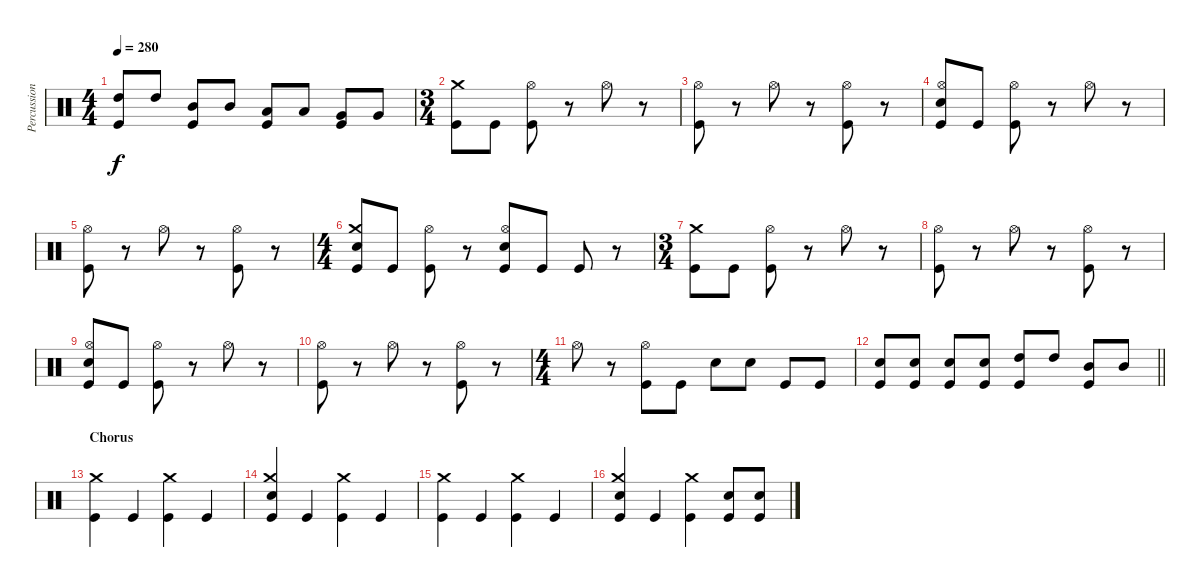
\track ("Percussion" "Percussion") {instrument percussion}
\staff {score}
\articulation defaults
\ts (4 4)
\tempo 280
\clef neutral
\ks c
("High Tom (hit)" "Kick (hit)").8{dy f} "High Tom (hit)".8 ("Mid Tom (hit)" "Kick (hit)").8 "Mid Tom (hit)".8 ("Low Tom (hit)" "Kick (hit)").8 "Low Tom (hit)".8 ("Very Low Tom (hit)" "Kick (hit)").8 "Very Low Tom (hit)".8 |
\ts (3 4)
("Crash medium (hit)" "Kick (hit)").8 "Kick (hit)".8 ("Hi-Hat (open)" "Kick (hit)").8 r.8 "Hi-Hat (open)".8 r.8 |
("Hi-Hat (open)" "Kick (hit)").8 r.8 "Hi-Hat (open)".8 r.8 ("Hi-Hat (open)" "Kick (hit)").8 r.8 |
("Hi-Hat (open)" "Electric Snare (hit)" "Kick (hit)").8 "Kick (hit)".8 ("Hi-Hat (open)" "Kick (hit)").8 r.8 "Hi-Hat (open)".8 r.8 |
("Hi-Hat (open)" "Kick (hit)").8 r.8 "Hi-Hat (open)".8 r.8 ("Hi-Hat (open)" "Kick (hit)").8 r.8 |
\ts (4 4)
("Crash medium (hit)" "Electric Snare (hit)" "Kick (hit)").8 "Kick (hit)".8 ("Hi-Hat (open)" "Kick (hit)").8 r.8 ("Hi-Hat (open)" "Electric Snare (hit)" "Kick (hit)").8 "Kick (hit)".8 "Kick (hit)".8 r.8 |
\ts (3 4)
("Crash medium (hit)" "Kick (hit)").8 "Kick (hit)".8 ("Hi-Hat (open)" "Kick (hit)").8 r.8 "Hi-Hat (open)".8 r.8 |
("Hi-Hat (open)" "Kick (hit)").8 r.8 "Hi-Hat (open)".8 r.8 ("Hi-Hat (open)" "Kick (hit)").8 r.8 |
("Hi-Hat (open)" "Electric Snare (hit)" "Kick (hit)").8 "Kick (hit)".8 ("Hi-Hat (open)" "Kick (hit)").8 r.8 "Hi-Hat (open)".8 r.8 |
("Hi-Hat (open)" "Kick (hit)").8 r.8 "Hi-Hat (open)".8 r.8 ("Hi-Hat (open)" "Kick (hit)").8 r.8 |
\ts (4 4)
"Hi-Hat (open)".8 r.8 ("Hi-Hat (open)" "Kick (hit)").8 "Kick (hit)".8 "Electric Snare (hit)".8 "Electric Snare (hit)".8 "Kick (hit)".8 "Kick (hit)".8 |
\barLineRight lightlight
("Electric Snare (hit)" "Kick (hit)").8 ("Electric Snare (hit)" "Kick (hit)").8 ("Electric Snare (hit)" "Kick (hit)").8 ("Electric Snare (hit)" "Kick (hit)").8 ("High Tom (hit)" "Kick (hit)").8 "High Tom (hit)".8 ("Mid Tom (hit)" "Kick (hit)").8 "Mid Tom (hit)".8 |
\section ("" "Chorus")
("Crash medium (hit)" "Kick (hit)").4 "Kick (hit)".4 ("Crash medium (hit)" "Kick (hit)").4 "Kick (hit)".4 |
("Crash medium (hit)" "Electric Snare (hit)" "Kick (hit)").4 "Kick (hit)".4 ("Crash medium (hit)" "Kick (hit)").4 "Kick (hit)".4 |
("Crash medium (hit)" "Kick (hit)").4 "Kick (hit)".4 ("Crash medium (hit)" "Kick (hit)").4 "Kick (hit)".4 |
("Crash medium (hit)" "Electric Snare (hit)" "Kick (hit)").4 "Kick (hit)".4 ("Crash medium (hit)" "Kick (hit)").4 ("Electric Snare (hit)" "Kick (hit)").8 ("Electric Snare (hit)" "Kick (hit)").8
